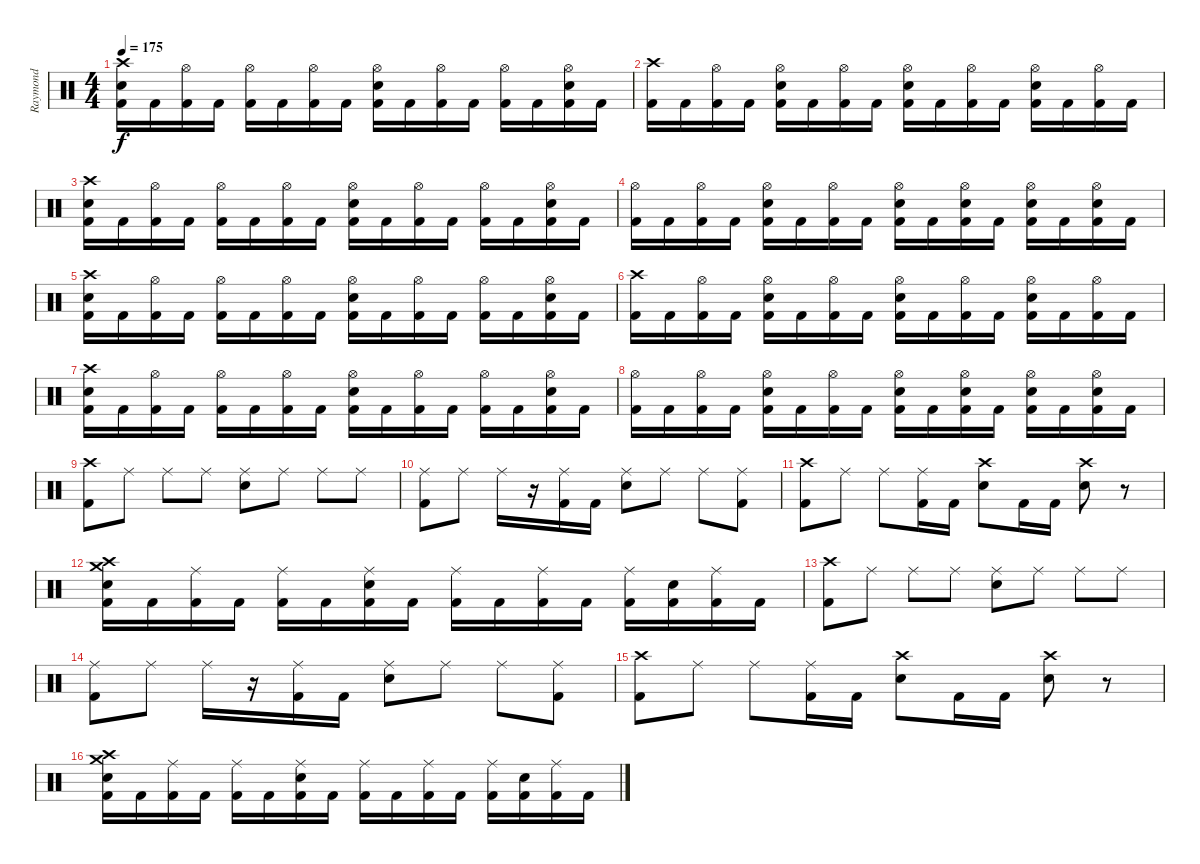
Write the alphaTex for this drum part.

\track ("Raymond" "Raymond") {instrument percussion}
\staff {score}
\articulation defaults
\ts (4 4)
\tempo 175
\clef neutral
\ks c
("Crash high (hit)" "Electric Snare (hit)" "Kick (hit) 2").16{dy f} "Kick (hit) 2".16 ("Hi-Hat (open)" "Kick (hit) 2").16 "Kick (hit) 2".16 ("Hi-Hat (open)" "Kick (hit) 2").16 "Kick (hit) 2".16 ("Hi-Hat (open)" "Kick (hit) 2").16 "Kick (hit) 2".16 ("Hi-Hat (open)" "Electric Snare (hit)" "Kick (hit) 2").16 "Kick (hit) 2".16 ("Hi-Hat (open)" "Kick (hit) 2").16 "Kick (hit) 2".16 ("Hi-Hat (open)" "Kick (hit) 2").16 "Kick (hit) 2".16 ("Hi-Hat (open)" "Electric Snare (hit)" "Kick (hit) 2").16 "Kick (hit) 2".16 |
("Crash high (hit)" "Kick (hit) 2").16 "Kick (hit) 2".16 ("Hi-Hat (open)" "Kick (hit) 2").16 "Kick (hit) 2".16 ("Hi-Hat (open)" "Electric Snare (hit)" "Kick (hit) 2").16 "Kick (hit) 2".16 ("Hi-Hat (open)" "Kick (hit) 2").16 "Kick (hit) 2".16 ("Hi-Hat (open)" "Electric Snare (hit)" "Kick (hit) 2").16 "Kick (hit) 2".16 ("Hi-Hat (open)" "Kick (hit) 2").16 "Kick (hit) 2".16 ("Hi-Hat (open)" "Electric Snare (hit)" "Kick (hit) 2").16 "Kick (hit) 2".16 ("Hi-Hat (open)" "Kick (hit) 2").16 "Kick (hit) 2".16 |
("Crash high (hit)" "Electric Snare (hit)" "Kick (hit) 2").16 "Kick (hit) 2".16 ("Hi-Hat (open)" "Kick (hit) 2").16 "Kick (hit) 2".16 ("Hi-Hat (open)" "Kick (hit) 2").16 "Kick (hit) 2".16 ("Hi-Hat (open)" "Kick (hit) 2").16 "Kick (hit) 2".16 ("Hi-Hat (open)" "Electric Snare (hit)" "Kick (hit) 2").16 "Kick (hit) 2".16 ("Hi-Hat (open)" "Kick (hit) 2").16 "Kick (hit) 2".16 ("Hi-Hat (open)" "Kick (hit) 2").16 "Kick (hit) 2".16 ("Hi-Hat (open)" "Electric Snare (hit)" "Kick (hit) 2").16 "Kick (hit) 2".16 |
("Hi-Hat (open)" "Kick (hit) 2").16 "Kick (hit) 2".16 ("Hi-Hat (open)" "Kick (hit) 2").16 "Kick (hit) 2".16 ("Hi-Hat (open)" "Electric Snare (hit)" "Kick (hit) 2").16 "Kick (hit) 2".16 ("Hi-Hat (open)" "Kick (hit) 2").16 "Kick (hit) 2".16 ("Hi-Hat (open)" "Electric Snare (hit)" "Kick (hit) 2").16 "Kick (hit) 2".16 ("Hi-Hat (open)" "Electric Snare (hit)" "Kick (hit) 2").16 "Kick (hit) 2".16 ("Hi-Hat (open)" "Electric Snare (hit)" "Kick (hit) 2").16 "Kick (hit) 2".16 ("Hi-Hat (open)" "Electric Snare (hit)" "Kick (hit) 2").16 "Kick (hit) 2".16 |
("Crash high (hit)" "Electric Snare (hit)" "Kick (hit) 2").16 "Kick (hit) 2".16 ("Hi-Hat (open)" "Kick (hit) 2").16 "Kick (hit) 2".16 ("Hi-Hat (open)" "Kick (hit) 2").16 "Kick (hit) 2".16 ("Hi-Hat (open)" "Kick (hit) 2").16 "Kick (hit) 2".16 ("Hi-Hat (open)" "Electric Snare (hit)" "Kick (hit) 2").16 "Kick (hit) 2".16 ("Hi-Hat (open)" "Kick (hit) 2").16 "Kick (hit) 2".16 ("Hi-Hat (open)" "Kick (hit) 2").16 "Kick (hit) 2".16 ("Hi-Hat (open)" "Electric Snare (hit)" "Kick (hit) 2").16 "Kick (hit) 2".16 |
("Crash high (hit)" "Kick (hit) 2").16 "Kick (hit) 2".16 ("Hi-Hat (open)" "Kick (hit) 2").16 "Kick (hit) 2".16 ("Hi-Hat (open)" "Electric Snare (hit)" "Kick (hit) 2").16 "Kick (hit) 2".16 ("Hi-Hat (open)" "Kick (hit) 2").16 "Kick (hit) 2".16 ("Hi-Hat (open)" "Electric Snare (hit)" "Kick (hit) 2").16 "Kick (hit) 2".16 ("Hi-Hat (open)" "Kick (hit) 2").16 "Kick (hit) 2".16 ("Hi-Hat (open)" "Electric Snare (hit)" "Kick (hit) 2").16 "Kick (hit) 2".16 ("Hi-Hat (open)" "Kick (hit) 2").16 "Kick (hit) 2".16 |
("Crash high (hit)" "Electric Snare (hit)" "Kick (hit) 2").16 "Kick (hit) 2".16 ("Hi-Hat (open)" "Kick (hit) 2").16 "Kick (hit) 2".16 ("Hi-Hat (open)" "Kick (hit) 2").16 "Kick (hit) 2".16 ("Hi-Hat (open)" "Kick (hit) 2").16 "Kick (hit) 2".16 ("Hi-Hat (open)" "Electric Snare (hit)" "Kick (hit) 2").16 "Kick (hit) 2".16 ("Hi-Hat (open)" "Kick (hit) 2").16 "Kick (hit) 2".16 ("Hi-Hat (open)" "Kick (hit) 2").16 "Kick (hit) 2".16 ("Hi-Hat (open)" "Electric Snare (hit)" "Kick (hit) 2").16 "Kick (hit) 2".16 |
("Hi-Hat (open)" "Kick (hit) 2").16 "Kick (hit) 2".16 ("Hi-Hat (open)" "Kick (hit) 2").16 "Kick (hit) 2".16 ("Hi-Hat (open)" "Electric Snare (hit)" "Kick (hit) 2").16 "Kick (hit) 2".16 ("Hi-Hat (open)" "Kick (hit) 2").16 "Kick (hit) 2".16 ("Hi-Hat (open)" "Electric Snare (hit)" "Kick (hit) 2").16 "Kick (hit) 2".16 ("Hi-Hat (open)" "Electric Snare (hit)" "Kick (hit) 2").16 "Kick (hit) 2".16 ("Hi-Hat (open)" "Electric Snare (hit)" "Kick (hit) 2").16 "Kick (hit) 2".16 ("Hi-Hat (open)" "Electric Snare (hit)" "Kick (hit) 2").16 "Kick (hit) 2".16 |
("Crash high (hit)" "Kick (hit) 2").8 "Ride (middle)".8 "Ride (middle)".8 "Ride (middle)".8 ("Ride (middle)" "Electric Snare (hit)").8 "Ride (middle)".8 "Ride (middle)".8 "Ride (middle)".8 |
("Ride (middle)" "Kick (hit) 2").8 "Ride (middle)".8 "Ride (middle)".16 r.16 ("Ride (middle)" "Kick (hit) 2").16 "Kick (hit) 2".16 ("Ride (middle)" "Electric Snare (hit)").8 "Ride (middle)".8 "Ride (middle)".8 ("Ride (middle)" "Kick (hit) 2").8 |
("Crash high (hit)" "Kick (hit) 2").8 "Ride (middle)".8 "Ride (middle)".8 ("Ride (middle)" "Kick (hit) 2").16 "Kick (hit) 2".16 ("Crash high (hit)" "Electric Snare (hit)").8 "Kick (hit) 2".16 "Kick (hit) 2".16 ("Crash high (hit)" "Electric Snare (hit)").8 r.8 |
("Crash high (hit)" "Crash medium (hit)" "Electric Snare (hit)" "Kick (hit) 2").16 "Kick (hit) 2".16 ("Ride (middle)" "Kick (hit) 2").16 "Kick (hit) 2".16 ("Ride (middle)" "Kick (hit) 2").16 "Kick (hit) 2".16 ("Ride (middle)" "Electric Snare (hit)" "Kick (hit) 2").16 "Kick (hit) 2".16 ("Ride (middle)" "Kick (hit) 2").16 "Kick (hit) 2".16 ("Ride (middle)" "Kick (hit) 2").16 "Kick (hit) 2".16 ("Ride (middle)" "Kick (hit) 2").16 ("Electric Snare (hit)" "Kick (hit) 2").16 ("Ride (middle)" "Kick (hit) 2").16 "Kick (hit) 2".16 |
("Crash high (hit)" "Kick (hit) 2").8 "Ride (middle)".8 "Ride (middle)".8 "Ride (middle)".8 ("Ride (middle)" "Electric Snare (hit)").8 "Ride (middle)".8 "Ride (middle)".8 "Ride (middle)".8 |
("Ride (middle)" "Kick (hit) 2").8 "Ride (middle)".8 "Ride (middle)".16 r.16 ("Ride (middle)" "Kick (hit) 2").16 "Kick (hit) 2".16 ("Ride (middle)" "Electric Snare (hit)").8 "Ride (middle)".8 "Ride (middle)".8 ("Ride (middle)" "Kick (hit) 2").8 |
("Crash high (hit)" "Kick (hit) 2").8 "Ride (middle)".8 "Ride (middle)".8 ("Ride (middle)" "Kick (hit) 2").16 "Kick (hit) 2".16 ("Crash high (hit)" "Electric Snare (hit)").8 "Kick (hit) 2".16 "Kick (hit) 2".16 ("Crash high (hit)" "Electric Snare (hit)").8 r.8 |
("Crash high (hit)" "Crash medium (hit)" "Electric Snare (hit)" "Kick (hit) 2").16 "Kick (hit) 2".16 ("Ride (middle)" "Kick (hit) 2").16 "Kick (hit) 2".16 ("Ride (middle)" "Kick (hit) 2").16 "Kick (hit) 2".16 ("Ride (middle)" "Electric Snare (hit)" "Kick (hit) 2").16 "Kick (hit) 2".16 ("Ride (middle)" "Kick (hit) 2").16 "Kick (hit) 2".16 ("Ride (middle)" "Kick (hit) 2").16 "Kick (hit) 2".16 ("Ride (middle)" "Kick (hit) 2").16 ("Electric Snare (hit)" "Kick (hit) 2").16 ("Ride (middle)" "Kick (hit) 2").16 "Kick (hit) 2".16
